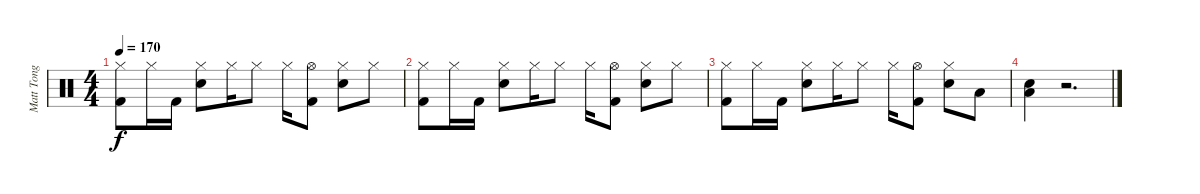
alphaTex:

\track ("Matt Tong" "Matt Tong") {instrument percussion}
\staff {score}
\articulation defaults
\ts (4 4)
\tempo 170
\clef neutral
\ks c
("Hi-Hat (closed)" "Kick (hit) 2").8{dy f} "Hi-Hat (closed)".16 "Kick (hit) 2".16 ("Hi-Hat (closed)" "Electric Snare (hit)").8 "Hi-Hat (closed)".16 "Hi-Hat (closed)".8 "Hi-Hat (closed)".16 ("Hi-Hat (open)" "Kick (hit) 2").8 ("Hi-Hat (closed)" "Electric Snare (hit)").8 "Hi-Hat (closed)".8 |
("Hi-Hat (closed)" "Kick (hit) 2").8 "Hi-Hat (closed)".16 "Kick (hit) 2".16 ("Hi-Hat (closed)" "Electric Snare (hit)").8 "Hi-Hat (closed)".16 "Hi-Hat (closed)".8 "Hi-Hat (closed)".16 ("Hi-Hat (open)" "Kick (hit) 2").8 ("Hi-Hat (closed)" "Electric Snare (hit)").8 "Hi-Hat (closed)".8 |
("Hi-Hat (closed)" "Kick (hit) 2").8 "Hi-Hat (closed)".16 "Kick (hit) 2".16 ("Hi-Hat (closed)" "Electric Snare (hit)").8 "Hi-Hat (closed)".16 "Hi-Hat (closed)".8 "Hi-Hat (closed)".16 ("Hi-Hat (open)" "Kick (hit) 2").8 ("Hi-Hat (closed)" "Electric Snare (hit)").8 "Low Floor Tom (hit)".8 |
("Low Tom (hit)" "Electric Snare (hit)").4 r.2{d}
